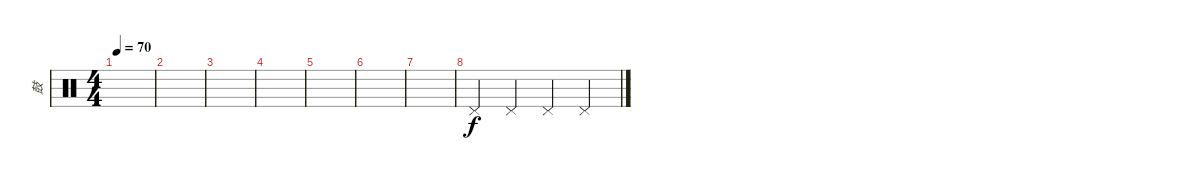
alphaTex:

\track ("鼓" "鼓") {instrument percussion}
\staff {score}
\articulation defaults
\ts (4 4)
\tempo 70
\clef neutral
\ks c
|
|
|
|
|
|
|
"Pedal Hi-Hat (hit)".4 "Pedal Hi-Hat (hit)".4 "Pedal Hi-Hat (hit)".4 "Pedal Hi-Hat (hit)".4
